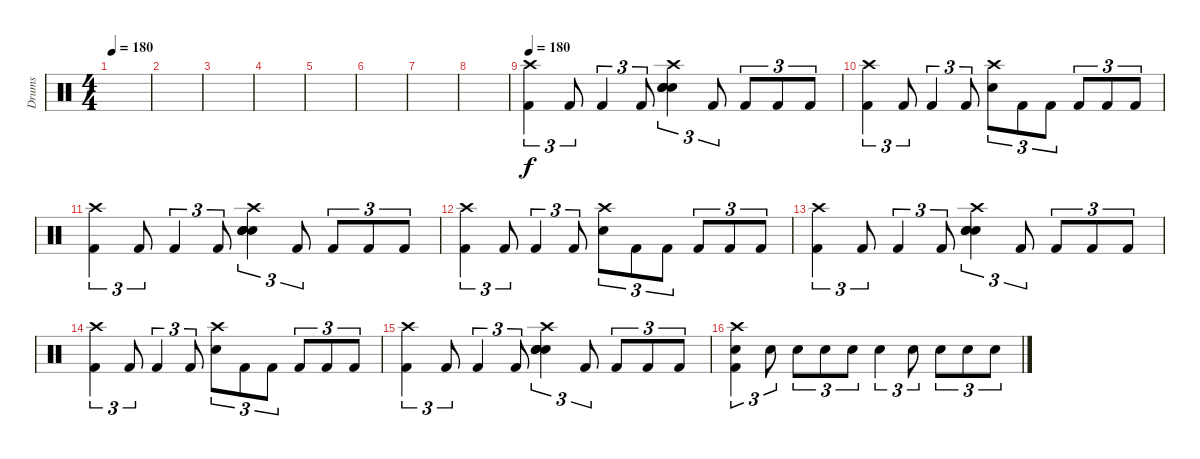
\track ("Drums" "Drums") {instrument percussion}
\staff {score}
\articulation defaults
\ts (4 4)
\tempo 180
\clef neutral
\ks c
|
|
|
|
|
|
|
|
\tempo 180
("Crash high (hit)" "Kick (hit) 2").4{tu (3 2)} "Kick (hit) 2".8{tu (3 2)} "Kick (hit) 2".4{tu (3 2)} "Kick (hit) 2".8{tu (3 2)} ("Crash high (hit)" "Electric Snare (hit)" "Snare (hit) 2" "Electric Snare (hit)" "Snare (hit) 2").4{tu (3 2)} "Kick (hit) 2".8{tu (3 2)} "Kick (hit) 2".8{tu (3 2)} "Kick (hit) 2".8{tu (3 2)} "Kick (hit) 2".8{tu (3 2)} |
("Crash high (hit)" "Kick (hit) 2").4{tu (3 2)} "Kick (hit) 2".8{tu (3 2)} "Kick (hit) 2".4{tu (3 2)} "Kick (hit) 2".8{tu (3 2)} ("Crash high (hit)" "Snare (hit) 2").8{tu (3 2)} "Kick (hit) 2".8{tu (3 2)} "Kick (hit) 2".8{tu (3 2)} "Kick (hit) 2".8{tu (3 2)} "Kick (hit) 2".8{tu (3 2)} "Kick (hit) 2".8{tu (3 2)} |
("Crash high (hit)" "Kick (hit) 2").4{tu (3 2)} "Kick (hit) 2".8{tu (3 2)} "Kick (hit) 2".4{tu (3 2)} "Kick (hit) 2".8{tu (3 2)} ("Crash high (hit)" "Electric Snare (hit)" "Snare (hit) 2" "Electric Snare (hit)" "Snare (hit) 2").4{tu (3 2)} "Kick (hit) 2".8{tu (3 2)} "Kick (hit) 2".8{tu (3 2)} "Kick (hit) 2".8{tu (3 2)} "Kick (hit) 2".8{tu (3 2)} |
("Crash high (hit)" "Kick (hit) 2").4{tu (3 2)} "Kick (hit) 2".8{tu (3 2)} "Kick (hit) 2".4{tu (3 2)} "Kick (hit) 2".8{tu (3 2)} ("Crash high (hit)" "Snare (hit) 2").8{tu (3 2)} "Kick (hit) 2".8{tu (3 2)} "Kick (hit) 2".8{tu (3 2)} "Kick (hit) 2".8{tu (3 2)} "Kick (hit) 2".8{tu (3 2)} "Kick (hit) 2".8{tu (3 2)} |
("Crash high (hit)" "Kick (hit) 2").4{tu (3 2)} "Kick (hit) 2".8{tu (3 2)} "Kick (hit) 2".4{tu (3 2)} "Kick (hit) 2".8{tu (3 2)} ("Crash high (hit)" "Electric Snare (hit)" "Snare (hit) 2" "Electric Snare (hit)" "Snare (hit) 2").4{tu (3 2)} "Kick (hit) 2".8{tu (3 2)} "Kick (hit) 2".8{tu (3 2)} "Kick (hit) 2".8{tu (3 2)} "Kick (hit) 2".8{tu (3 2)} |
("Crash high (hit)" "Kick (hit) 2").4{tu (3 2)} "Kick (hit) 2".8{tu (3 2)} "Kick (hit) 2".4{tu (3 2)} "Kick (hit) 2".8{tu (3 2)} ("Crash high (hit)" "Snare (hit) 2").8{tu (3 2)} "Kick (hit) 2".8{tu (3 2)} "Kick (hit) 2".8{tu (3 2)} "Kick (hit) 2".8{tu (3 2)} "Kick (hit) 2".8{tu (3 2)} "Kick (hit) 2".8{tu (3 2)} |
("Crash high (hit)" "Kick (hit) 2").4{tu (3 2)} "Kick (hit) 2".8{tu (3 2)} "Kick (hit) 2".4{tu (3 2)} "Kick (hit) 2".8{tu (3 2)} ("Crash high (hit)" "Electric Snare (hit)" "Snare (hit) 2" "Electric Snare (hit)" "Snare (hit) 2").4{tu (3 2)} "Kick (hit) 2".8{tu (3 2)} "Kick (hit) 2".8{tu (3 2)} "Kick (hit) 2".8{tu (3 2)} "Kick (hit) 2".8{tu (3 2)} |
("Crash high (hit)" "Snare (hit) 2" "Kick (hit) 2").4{tu (3 2)} "Snare (hit) 2".8{tu (3 2)} "Snare (hit) 2".8{tu (3 2)} "Snare (hit) 2".8{tu (3 2)} "Snare (hit) 2".8{tu (3 2)} "Snare (hit) 2".4{tu (3 2)} "Snare (hit) 2".8{tu (3 2)} "Snare (hit) 2".8{tu (3 2)} "Snare (hit) 2".8{tu (3 2)} "Snare (hit) 2".8{tu (3 2)}
